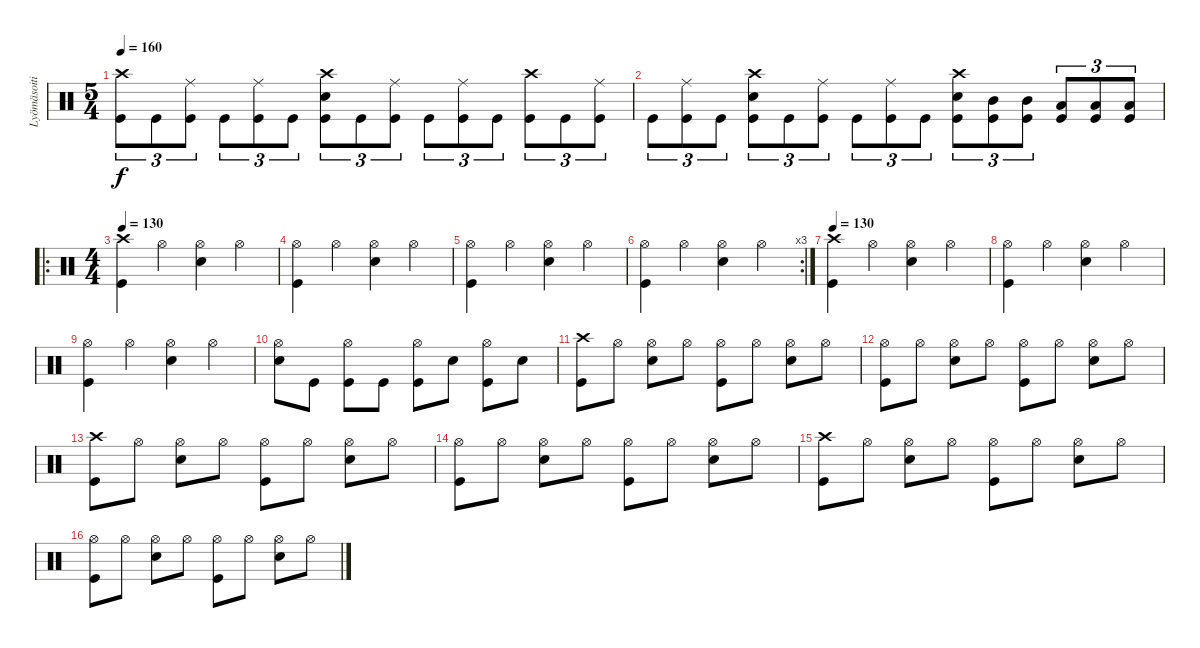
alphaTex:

\track ("Lyömäsoitin" "Lyömäsoiti") {instrument percussion}
\staff {score}
\articulation defaults
\ts (5 4)
\tempo 160
\clef neutral
\ks c
("Crash high (hit)" "Kick (hit)").8{tu (3 2) dy f} "Kick (hit)".8{tu (3 2)} ("Ride (middle)" "Kick (hit)").8{tu (3 2)} "Kick (hit)".8{tu (3 2)} ("Ride (middle)" "Kick (hit)").8{tu (3 2)} "Kick (hit)".8{tu (3 2)} ("Crash high (hit)" "Snare (hit) 2" "Kick (hit)").8{tu (3 2)} "Kick (hit)".8{tu (3 2)} ("Ride (middle)" "Kick (hit)").8{tu (3 2)} "Kick (hit)".8{tu (3 2)} ("Ride (middle)" "Kick (hit)").8{tu (3 2)} "Kick (hit)".8{tu (3 2)} ("Crash high (hit)" "Kick (hit)").8{tu (3 2)} "Kick (hit)".8{tu (3 2)} ("Ride (middle)" "Kick (hit)").8{tu (3 2)} |
"Kick (hit)".8{tu (3 2)} ("Ride (middle)" "Kick (hit)").8{tu (3 2)} "Kick (hit)".8{tu (3 2)} ("Crash high (hit)" "Snare (hit) 2" "Kick (hit)").8{tu (3 2)} "Kick (hit)".8{tu (3 2)} ("Ride (middle)" "Kick (hit)").8{tu (3 2)} "Kick (hit)".8{tu (3 2)} ("Ride (middle)" "Kick (hit)").8{tu (3 2)} "Kick (hit)".8{tu (3 2)} ("Crash high (hit)" "Snare (hit) 2" "Kick (hit)").8{tu (3 2)} ("Mid Tom (hit)" "Kick (hit)").8{tu (3 2)} ("Mid Tom (hit)" "Kick (hit)").8{tu (3 2)} ("Low Tom (hit)" "Kick (hit)").8{tu (3 2)} ("Low Tom (hit)" "Kick (hit)").8{tu (3 2)} ("Low Tom (hit)" "Kick (hit)").8{tu (3 2)} |
\ro
\ts (4 4)
\tempo 130
("Crash high (hit)" "Kick (hit)").4 "Hi-Hat (open)".4 ("Hi-Hat (open)" "Snare (hit) 2").4 "Hi-Hat (open)".4 |
("Hi-Hat (open)" "Kick (hit)").4 "Hi-Hat (open)".4 ("Hi-Hat (open)" "Snare (hit) 2").4 "Hi-Hat (open)".4 |
("Hi-Hat (open)" "Kick (hit)").4 "Hi-Hat (open)".4 ("Hi-Hat (open)" "Snare (hit) 2").4 "Hi-Hat (open)".4 |
\rc 3
("Hi-Hat (open)" "Kick (hit)").4 "Hi-Hat (open)".4 ("Hi-Hat (open)" "Snare (hit) 2").4 "Hi-Hat (open)".4 |
\tempo 130
("Crash high (hit)" "Kick (hit)").4 "Hi-Hat (open)".4 ("Hi-Hat (open)" "Snare (hit) 2").4 "Hi-Hat (open)".4 |
("Hi-Hat (open)" "Kick (hit)").4 "Hi-Hat (open)".4 ("Hi-Hat (open)" "Snare (hit) 2").4 "Hi-Hat (open)".4 |
("Hi-Hat (open)" "Kick (hit)").4 "Hi-Hat (open)".4 ("Hi-Hat (open)" "Snare (hit) 2").4 "Hi-Hat (open)".4 |
("Hi-Hat (open)" "Snare (hit) 2").8 "Kick (hit)".8 ("Hi-Hat (open)" "Kick (hit)").8 "Kick (hit)".8 ("Hi-Hat (open)" "Kick (hit)").8 "Snare (hit) 2".8 ("Hi-Hat (open)" "Kick (hit)").8 "Snare (hit) 2".8 |
("Crash high (hit)" "Kick (hit)").8 "Hi-Hat (open)".8 ("Hi-Hat (open)" "Snare (hit) 2").8 "Hi-Hat (open)".8 ("Hi-Hat (open)" "Kick (hit)").8 "Hi-Hat (open)".8 ("Hi-Hat (open)" "Snare (hit) 2").8 "Hi-Hat (open)".8 |
("Hi-Hat (open)" "Kick (hit)").8 "Hi-Hat (open)".8 ("Hi-Hat (open)" "Snare (hit) 2").8 "Hi-Hat (open)".8 ("Hi-Hat (open)" "Kick (hit)").8 "Hi-Hat (open)".8 ("Hi-Hat (open)" "Snare (hit) 2").8 "Hi-Hat (open)".8 |
("Crash high (hit)" "Kick (hit)").8 "Hi-Hat (open)".8 ("Hi-Hat (open)" "Snare (hit) 2").8 "Hi-Hat (open)".8 ("Hi-Hat (open)" "Kick (hit)").8 "Hi-Hat (open)".8 ("Hi-Hat (open)" "Snare (hit) 2").8 "Hi-Hat (open)".8 |
("Hi-Hat (open)" "Kick (hit)").8 "Hi-Hat (open)".8 ("Hi-Hat (open)" "Snare (hit) 2").8 "Hi-Hat (open)".8 ("Hi-Hat (open)" "Kick (hit)").8 "Hi-Hat (open)".8 ("Hi-Hat (open)" "Snare (hit) 2").8 "Hi-Hat (open)".8 |
("Crash high (hit)" "Kick (hit)").8 "Hi-Hat (open)".8 ("Hi-Hat (open)" "Snare (hit) 2").8 "Hi-Hat (open)".8 ("Hi-Hat (open)" "Kick (hit)").8 "Hi-Hat (open)".8 ("Hi-Hat (open)" "Snare (hit) 2").8 "Hi-Hat (open)".8 |
("Hi-Hat (open)" "Kick (hit)").8 "Hi-Hat (open)".8 ("Hi-Hat (open)" "Snare (hit) 2").8 "Hi-Hat (open)".8 ("Hi-Hat (open)" "Kick (hit)").8 "Hi-Hat (open)".8 ("Hi-Hat (open)" "Snare (hit) 2").8 "Hi-Hat (open)".8
